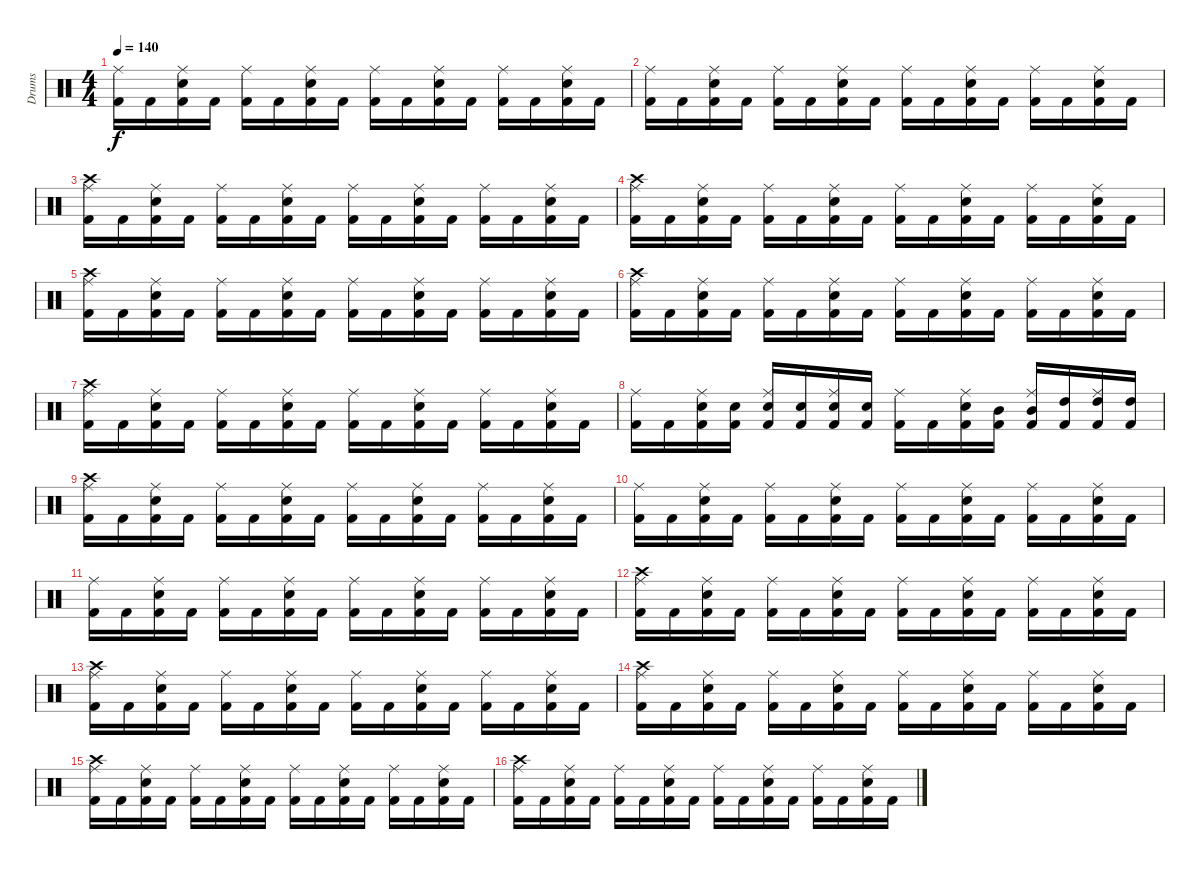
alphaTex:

\track ("Drums" "Drums") {instrument percussion}
\staff {score}
\articulation defaults
\ts (4 4)
\tempo 140
\clef neutral
\ks c
("Kick (hit) 2" "Ride (middle)").16{dy f} "Kick (hit) 2".16 ("Kick (hit) 2" "Snare (hit) 2" "Ride (middle)").16 "Kick (hit) 2".16 ("Kick (hit) 2" "Ride (middle)").16 "Kick (hit) 2".16 ("Kick (hit) 2" "Snare (hit) 2" "Ride (middle)").16 "Kick (hit) 2".16 ("Kick (hit) 2" "Ride (middle)").16 "Kick (hit) 2".16 ("Kick (hit) 2" "Snare (hit) 2" "Ride (middle)").16 "Kick (hit) 2".16 ("Kick (hit) 2" "Ride (middle)").16 "Kick (hit) 2".16 ("Kick (hit) 2" "Snare (hit) 2" "Ride (middle)").16 "Kick (hit) 2".16 |
("Kick (hit) 2" "Ride (middle)").16 "Kick (hit) 2".16 ("Kick (hit) 2" "Snare (hit) 2" "Ride (middle)").16 "Kick (hit) 2".16 ("Kick (hit) 2" "Ride (middle)").16 "Kick (hit) 2".16 ("Kick (hit) 2" "Snare (hit) 2" "Ride (middle)").16 "Kick (hit) 2".16 ("Kick (hit) 2" "Ride (middle)").16 "Kick (hit) 2".16 ("Kick (hit) 2" "Snare (hit) 2" "Ride (middle)").16 "Kick (hit) 2".16 ("Kick (hit) 2" "Ride (middle)").16 "Kick (hit) 2".16 ("Kick (hit) 2" "Snare (hit) 2" "Ride (middle)").16 "Kick (hit) 2".16 |
("Kick (hit) 2" "Crash high (hit)" "Ride (middle)").16 "Kick (hit) 2".16 ("Kick (hit) 2" "Snare (hit) 2" "Ride (middle)").16 "Kick (hit) 2".16 ("Kick (hit) 2" "Ride (middle)").16 "Kick (hit) 2".16 ("Kick (hit) 2" "Snare (hit) 2" "Ride (middle)").16 "Kick (hit) 2".16 ("Kick (hit) 2" "Ride (middle)").16 "Kick (hit) 2".16 ("Kick (hit) 2" "Snare (hit) 2" "Ride (middle)").16 "Kick (hit) 2".16 ("Kick (hit) 2" "Ride (middle)").16 "Kick (hit) 2".16 ("Kick (hit) 2" "Snare (hit) 2" "Ride (middle)").16 "Kick (hit) 2".16 |
("Kick (hit) 2" "Crash high (hit)" "Ride (middle)").16 "Kick (hit) 2".16 ("Kick (hit) 2" "Snare (hit) 2" "Ride (middle)").16 "Kick (hit) 2".16 ("Kick (hit) 2" "Ride (middle)").16 "Kick (hit) 2".16 ("Kick (hit) 2" "Snare (hit) 2" "Ride (middle)").16 "Kick (hit) 2".16 ("Kick (hit) 2" "Ride (middle)").16 "Kick (hit) 2".16 ("Kick (hit) 2" "Snare (hit) 2" "Ride (middle)").16 "Kick (hit) 2".16 ("Kick (hit) 2" "Ride (middle)").16 "Kick (hit) 2".16 ("Kick (hit) 2" "Snare (hit) 2" "Ride (middle)").16 "Kick (hit) 2".16 |
("Kick (hit) 2" "Crash high (hit)" "Ride (middle)").16 "Kick (hit) 2".16 ("Kick (hit) 2" "Snare (hit) 2" "Ride (middle)").16 "Kick (hit) 2".16 ("Kick (hit) 2" "Ride (middle)").16 "Kick (hit) 2".16 ("Kick (hit) 2" "Snare (hit) 2" "Ride (middle)").16 "Kick (hit) 2".16 ("Kick (hit) 2" "Ride (middle)").16 "Kick (hit) 2".16 ("Kick (hit) 2" "Snare (hit) 2" "Ride (middle)").16 "Kick (hit) 2".16 ("Kick (hit) 2" "Ride (middle)").16 "Kick (hit) 2".16 ("Kick (hit) 2" "Snare (hit) 2" "Ride (middle)").16 "Kick (hit) 2".16 |
("Kick (hit) 2" "Crash high (hit)" "Ride (middle)").16 "Kick (hit) 2".16 ("Kick (hit) 2" "Snare (hit) 2" "Ride (middle)").16 "Kick (hit) 2".16 ("Kick (hit) 2" "Ride (middle)").16 "Kick (hit) 2".16 ("Kick (hit) 2" "Snare (hit) 2" "Ride (middle)").16 "Kick (hit) 2".16 ("Kick (hit) 2" "Ride (middle)").16 "Kick (hit) 2".16 ("Kick (hit) 2" "Snare (hit) 2" "Ride (middle)").16 "Kick (hit) 2".16 ("Kick (hit) 2" "Ride (middle)").16 "Kick (hit) 2".16 ("Kick (hit) 2" "Snare (hit) 2" "Ride (middle)").16 "Kick (hit) 2".16 |
("Kick (hit) 2" "Crash high (hit)" "Ride (middle)").16 "Kick (hit) 2".16 ("Kick (hit) 2" "Snare (hit) 2" "Ride (middle)").16 "Kick (hit) 2".16 ("Kick (hit) 2" "Ride (middle)").16 "Kick (hit) 2".16 ("Kick (hit) 2" "Snare (hit) 2" "Ride (middle)").16 "Kick (hit) 2".16 ("Kick (hit) 2" "Ride (middle)").16 "Kick (hit) 2".16 ("Kick (hit) 2" "Snare (hit) 2" "Ride (middle)").16 "Kick (hit) 2".16 ("Kick (hit) 2" "Ride (middle)").16 "Kick (hit) 2".16 ("Kick (hit) 2" "Snare (hit) 2" "Ride (middle)").16 "Kick (hit) 2".16 |
("Kick (hit) 2" "Ride (middle)").16 "Kick (hit) 2".16 ("Kick (hit) 2" "Snare (hit) 2" "Ride (middle)").16 ("Kick (hit) 2" "Snare (hit) 2").16 ("Kick (hit) 2" "Snare (hit) 2" "Ride (middle)").16 ("Kick (hit) 2" "Snare (hit) 2").16 ("Kick (hit) 2" "Snare (hit) 2" "Ride (middle)").16 ("Kick (hit) 2" "Snare (hit) 2").16 ("Kick (hit) 2" "Ride (middle)").16 "Kick (hit) 2".16 ("Kick (hit) 2" "Snare (hit) 2" "Ride (middle)").16 ("Kick (hit) 2" "Mid Tom (hit)").16 ("Kick (hit) 2" "Mid Tom (hit)" "Ride (middle)").16 ("Kick (hit) 2" "High Tom (hit)").16 ("Kick (hit) 2" "High Tom (hit)" "Ride (middle)").16 ("Kick (hit) 2" "High Tom (hit)").16 |
("Kick (hit) 2" "Crash high (hit)" "Ride (middle)").16 "Kick (hit) 2".16 ("Kick (hit) 2" "Snare (hit) 2" "Ride (middle)").16 "Kick (hit) 2".16 ("Kick (hit) 2" "Ride (middle)").16 "Kick (hit) 2".16 ("Kick (hit) 2" "Snare (hit) 2" "Ride (middle)").16 "Kick (hit) 2".16 ("Kick (hit) 2" "Ride (middle)").16 "Kick (hit) 2".16 ("Kick (hit) 2" "Snare (hit) 2" "Ride (middle)").16 "Kick (hit) 2".16 ("Kick (hit) 2" "Ride (middle)").16 "Kick (hit) 2".16 ("Kick (hit) 2" "Snare (hit) 2" "Ride (middle)").16 "Kick (hit) 2".16 |
("Kick (hit) 2" "Ride (middle)").16 "Kick (hit) 2".16 ("Kick (hit) 2" "Snare (hit) 2" "Ride (middle)").16 "Kick (hit) 2".16 ("Kick (hit) 2" "Ride (middle)").16 "Kick (hit) 2".16 ("Kick (hit) 2" "Snare (hit) 2" "Ride (middle)").16 "Kick (hit) 2".16 ("Kick (hit) 2" "Ride (middle)").16 "Kick (hit) 2".16 ("Kick (hit) 2" "Snare (hit) 2" "Ride (middle)").16 "Kick (hit) 2".16 ("Kick (hit) 2" "Ride (middle)").16 "Kick (hit) 2".16 ("Kick (hit) 2" "Snare (hit) 2" "Ride (middle)").16 "Kick (hit) 2".16 |
("Kick (hit) 2" "Ride (middle)").16 "Kick (hit) 2".16 ("Kick (hit) 2" "Snare (hit) 2" "Ride (middle)").16 "Kick (hit) 2".16 ("Kick (hit) 2" "Ride (middle)").16 "Kick (hit) 2".16 ("Kick (hit) 2" "Snare (hit) 2" "Ride (middle)").16 "Kick (hit) 2".16 ("Kick (hit) 2" "Ride (middle)").16 "Kick (hit) 2".16 ("Kick (hit) 2" "Snare (hit) 2" "Ride (middle)").16 "Kick (hit) 2".16 ("Kick (hit) 2" "Ride (middle)").16 "Kick (hit) 2".16 ("Kick (hit) 2" "Snare (hit) 2" "Ride (middle)").16 "Kick (hit) 2".16 |
("Kick (hit) 2" "Crash high (hit)" "Ride (middle)").16 "Kick (hit) 2".16 ("Kick (hit) 2" "Snare (hit) 2" "Ride (middle)").16 "Kick (hit) 2".16 ("Kick (hit) 2" "Ride (middle)").16 "Kick (hit) 2".16 ("Kick (hit) 2" "Snare (hit) 2" "Ride (middle)").16 "Kick (hit) 2".16 ("Kick (hit) 2" "Ride (middle)").16 "Kick (hit) 2".16 ("Kick (hit) 2" "Snare (hit) 2" "Ride (middle)").16 "Kick (hit) 2".16 ("Kick (hit) 2" "Ride (middle)").16 "Kick (hit) 2".16 ("Kick (hit) 2" "Snare (hit) 2" "Ride (middle)").16 "Kick (hit) 2".16 |
("Kick (hit) 2" "Crash high (hit)" "Ride (middle)").16 "Kick (hit) 2".16 ("Kick (hit) 2" "Snare (hit) 2" "Ride (middle)").16 "Kick (hit) 2".16 ("Kick (hit) 2" "Ride (middle)").16 "Kick (hit) 2".16 ("Kick (hit) 2" "Snare (hit) 2" "Ride (middle)").16 "Kick (hit) 2".16 ("Kick (hit) 2" "Ride (middle)").16 "Kick (hit) 2".16 ("Kick (hit) 2" "Snare (hit) 2" "Ride (middle)").16 "Kick (hit) 2".16 ("Kick (hit) 2" "Ride (middle)").16 "Kick (hit) 2".16 ("Kick (hit) 2" "Snare (hit) 2" "Ride (middle)").16 "Kick (hit) 2".16 |
("Kick (hit) 2" "Crash high (hit)" "Ride (middle)").16 "Kick (hit) 2".16 ("Kick (hit) 2" "Snare (hit) 2" "Ride (middle)").16 "Kick (hit) 2".16 ("Kick (hit) 2" "Ride (middle)").16 "Kick (hit) 2".16 ("Kick (hit) 2" "Snare (hit) 2" "Ride (middle)").16 "Kick (hit) 2".16 ("Kick (hit) 2" "Ride (middle)").16 "Kick (hit) 2".16 ("Kick (hit) 2" "Snare (hit) 2" "Ride (middle)").16 "Kick (hit) 2".16 ("Kick (hit) 2" "Ride (middle)").16 "Kick (hit) 2".16 ("Kick (hit) 2" "Snare (hit) 2" "Ride (middle)").16 "Kick (hit) 2".16 |
("Kick (hit) 2" "Crash high (hit)" "Ride (middle)").16 "Kick (hit) 2".16 ("Kick (hit) 2" "Snare (hit) 2" "Ride (middle)").16 "Kick (hit) 2".16 ("Kick (hit) 2" "Ride (middle)").16 "Kick (hit) 2".16 ("Kick (hit) 2" "Snare (hit) 2" "Ride (middle)").16 "Kick (hit) 2".16 ("Kick (hit) 2" "Ride (middle)").16 "Kick (hit) 2".16 ("Kick (hit) 2" "Snare (hit) 2" "Ride (middle)").16 "Kick (hit) 2".16 ("Kick (hit) 2" "Ride (middle)").16 "Kick (hit) 2".16 ("Kick (hit) 2" "Snare (hit) 2" "Ride (middle)").16 "Kick (hit) 2".16 |
("Kick (hit) 2" "Crash high (hit)" "Ride (middle)").16 "Kick (hit) 2".16 ("Kick (hit) 2" "Snare (hit) 2" "Ride (middle)").16 "Kick (hit) 2".16 ("Kick (hit) 2" "Ride (middle)").16 "Kick (hit) 2".16 ("Kick (hit) 2" "Snare (hit) 2" "Ride (middle)").16 "Kick (hit) 2".16 ("Kick (hit) 2" "Ride (middle)").16 "Kick (hit) 2".16 ("Kick (hit) 2" "Snare (hit) 2" "Ride (middle)").16 "Kick (hit) 2".16 ("Kick (hit) 2" "Ride (middle)").16 "Kick (hit) 2".16 ("Kick (hit) 2" "Snare (hit) 2" "Ride (middle)").16 "Kick (hit) 2".16
